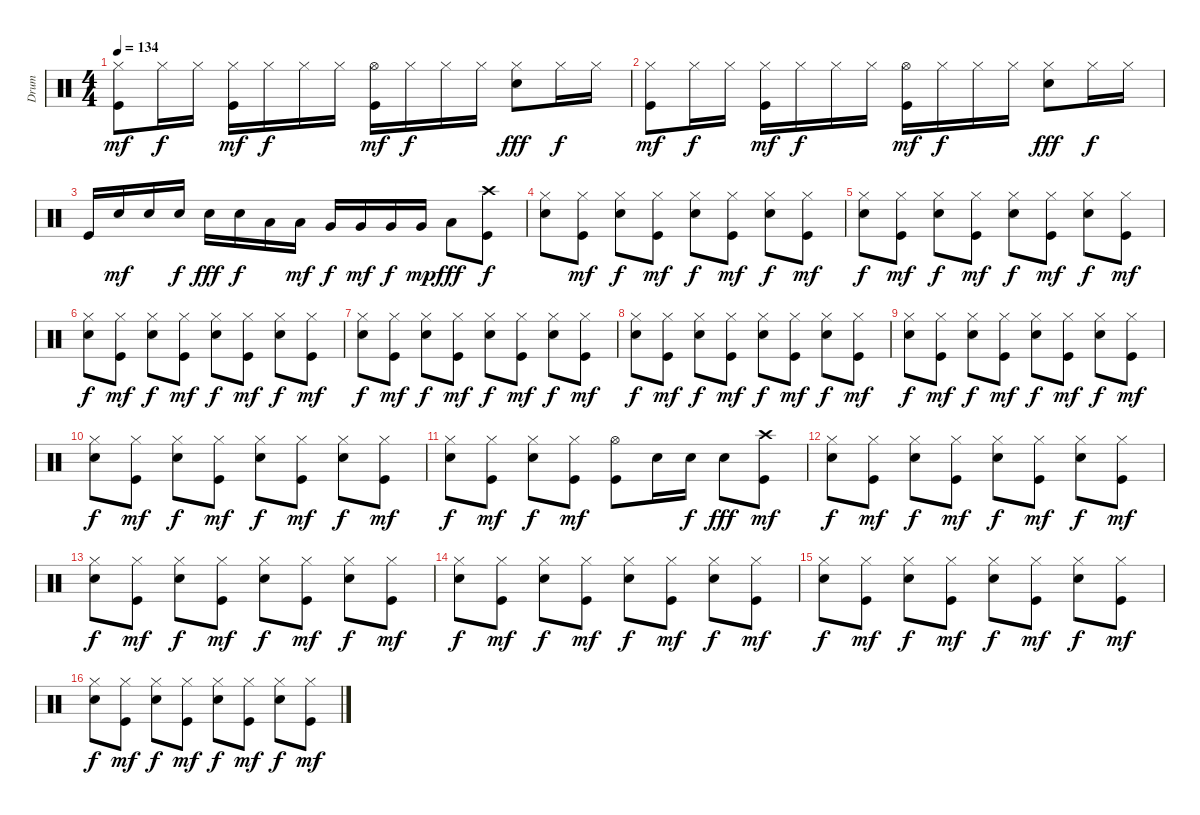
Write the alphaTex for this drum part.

\track ("Drum" "Drum") {instrument percussion}
\staff {score}
\articulation defaults
\ts (4 4)
\tempo 134
\clef neutral
\ks c
("Hi-Hat (closed)" "Kick (hit)").8{dy mf} "Hi-Hat (closed)".16{dy f} "Hi-Hat (closed)".16 ("Hi-Hat (closed)" "Kick (hit)").16{dy mf} "Hi-Hat (closed)".16{dy f} "Hi-Hat (closed)".16 "Hi-Hat (closed)".16 ("Hi-Hat (open)" "Kick (hit)").16{dy mf} "Hi-Hat (closed)".16{dy f} "Hi-Hat (closed)".16 "Hi-Hat (closed)".16 ("Hi-Hat (closed)" "Electric Snare (hit)").8{dy fff} "Hi-Hat (closed)".16{dy f} "Hi-Hat (closed)".16 |
("Hi-Hat (closed)" "Kick (hit)").8{dy mf} "Hi-Hat (closed)".16{dy f} "Hi-Hat (closed)".16 ("Hi-Hat (closed)" "Kick (hit)").16{dy mf} "Hi-Hat (closed)".16{dy f} "Hi-Hat (closed)".16 "Hi-Hat (closed)".16 ("Hi-Hat (open)" "Kick (hit)").16{dy mf} "Hi-Hat (closed)".16{dy f} "Hi-Hat (closed)".16 "Hi-Hat (closed)".16 ("Hi-Hat (closed)" "Electric Snare (hit)").8{dy fff} "Hi-Hat (closed)".16{dy f} "Hi-Hat (closed)".16 |
"Kick (hit)".16 "Electric Snare (hit)".16{dy mf} "Electric Snare (hit)".16 "Electric Snare (hit)".16{dy f} "Electric Snare (hit)".16{dy fff} "Electric Snare (hit)".16{dy f} "Low Tom (hit)".16 "Low Tom (hit)".16{dy mf} "Very Low Tom (hit)".16{dy f} "Very Low Tom (hit)".16{dy mf} "Very Low Tom (hit)".16{dy f} "Very Low Tom (hit)".16{dy mp} "Low Floor Tom (hit)".8{dy fff} ("Crash high (hit)" "Kick (hit)").8{dy f} |
("Hi-Hat (closed)" "Electric Snare (hit)").8 ("Hi-Hat (closed)" "Kick (hit)").8{dy mf} ("Hi-Hat (closed)" "Electric Snare (hit)").8{dy f} ("Hi-Hat (closed)" "Kick (hit)").8{dy mf} ("Hi-Hat (closed)" "Electric Snare (hit)").8{dy f} ("Hi-Hat (closed)" "Kick (hit)").8{dy mf} ("Hi-Hat (closed)" "Electric Snare (hit)").8{dy f} ("Hi-Hat (closed)" "Kick (hit)").8{dy mf} |
("Hi-Hat (closed)" "Electric Snare (hit)").8{dy f} ("Hi-Hat (closed)" "Kick (hit)").8{dy mf} ("Hi-Hat (closed)" "Electric Snare (hit)").8{dy f} ("Hi-Hat (closed)" "Kick (hit)").8{dy mf} ("Hi-Hat (closed)" "Electric Snare (hit)").8{dy f} ("Hi-Hat (closed)" "Kick (hit)").8{dy mf} ("Hi-Hat (closed)" "Electric Snare (hit)").8{dy f} ("Hi-Hat (closed)" "Kick (hit)").8{dy mf} |
("Hi-Hat (closed)" "Electric Snare (hit)").8{dy f} ("Hi-Hat (closed)" "Kick (hit)").8{dy mf} ("Hi-Hat (closed)" "Electric Snare (hit)").8{dy f} ("Hi-Hat (closed)" "Kick (hit)").8{dy mf} ("Hi-Hat (closed)" "Electric Snare (hit)").8{dy f} ("Hi-Hat (closed)" "Kick (hit)").8{dy mf} ("Hi-Hat (closed)" "Electric Snare (hit)").8{dy f} ("Hi-Hat (closed)" "Kick (hit)").8{dy mf} |
("Hi-Hat (closed)" "Electric Snare (hit)").8{dy f} ("Hi-Hat (closed)" "Kick (hit)").8{dy mf} ("Hi-Hat (closed)" "Electric Snare (hit)").8{dy f} ("Hi-Hat (closed)" "Kick (hit)").8{dy mf} ("Hi-Hat (closed)" "Electric Snare (hit)").8{dy f} ("Hi-Hat (closed)" "Kick (hit)").8{dy mf} ("Hi-Hat (closed)" "Electric Snare (hit)").8{dy f} ("Hi-Hat (closed)" "Kick (hit)").8{dy mf} |
("Hi-Hat (closed)" "Electric Snare (hit)").8{dy f} ("Hi-Hat (closed)" "Kick (hit)").8{dy mf} ("Hi-Hat (closed)" "Electric Snare (hit)").8{dy f} ("Hi-Hat (closed)" "Kick (hit)").8{dy mf} ("Hi-Hat (closed)" "Electric Snare (hit)").8{dy f} ("Hi-Hat (closed)" "Kick (hit)").8{dy mf} ("Hi-Hat (closed)" "Electric Snare (hit)").8{dy f} ("Hi-Hat (closed)" "Kick (hit)").8{dy mf} |
("Hi-Hat (closed)" "Electric Snare (hit)").8{dy f} ("Hi-Hat (closed)" "Kick (hit)").8{dy mf} ("Hi-Hat (closed)" "Electric Snare (hit)").8{dy f} ("Hi-Hat (closed)" "Kick (hit)").8{dy mf} ("Hi-Hat (closed)" "Electric Snare (hit)").8{dy f} ("Hi-Hat (closed)" "Kick (hit)").8{dy mf} ("Hi-Hat (closed)" "Electric Snare (hit)").8{dy f} ("Hi-Hat (closed)" "Kick (hit)").8{dy mf} |
("Hi-Hat (closed)" "Electric Snare (hit)").8{dy f} ("Hi-Hat (closed)" "Kick (hit)").8{dy mf} ("Hi-Hat (closed)" "Electric Snare (hit)").8{dy f} ("Hi-Hat (closed)" "Kick (hit)").8{dy mf} ("Hi-Hat (closed)" "Electric Snare (hit)").8{dy f} ("Hi-Hat (closed)" "Kick (hit)").8{dy mf} ("Hi-Hat (closed)" "Electric Snare (hit)").8{dy f} ("Hi-Hat (closed)" "Kick (hit)").8{dy mf} |
("Hi-Hat (closed)" "Electric Snare (hit)").8{dy f} ("Hi-Hat (closed)" "Kick (hit)").8{dy mf} ("Hi-Hat (closed)" "Electric Snare (hit)").8{dy f} ("Hi-Hat (closed)" "Kick (hit)").8{dy mf} ("Hi-Hat (open)" "Kick (hit)").8 "Electric Snare (hit)".16 "Electric Snare (hit)".16{dy f} "Electric Snare (hit)".8{dy fff} ("Crash high (hit)" "Kick (hit)").8{dy mf} |
("Hi-Hat (closed)" "Electric Snare (hit)").8{dy f} ("Hi-Hat (closed)" "Kick (hit)").8{dy mf} ("Hi-Hat (closed)" "Electric Snare (hit)").8{dy f} ("Hi-Hat (closed)" "Kick (hit)").8{dy mf} ("Hi-Hat (closed)" "Electric Snare (hit)").8{dy f} ("Hi-Hat (closed)" "Kick (hit)").8{dy mf} ("Hi-Hat (closed)" "Electric Snare (hit)").8{dy f} ("Hi-Hat (closed)" "Kick (hit)").8{dy mf} |
("Hi-Hat (closed)" "Electric Snare (hit)").8{dy f} ("Hi-Hat (closed)" "Kick (hit)").8{dy mf} ("Hi-Hat (closed)" "Electric Snare (hit)").8{dy f} ("Hi-Hat (closed)" "Kick (hit)").8{dy mf} ("Hi-Hat (closed)" "Electric Snare (hit)").8{dy f} ("Hi-Hat (closed)" "Kick (hit)").8{dy mf} ("Hi-Hat (closed)" "Electric Snare (hit)").8{dy f} ("Hi-Hat (closed)" "Kick (hit)").8{dy mf} |
("Hi-Hat (closed)" "Electric Snare (hit)").8{dy f} ("Hi-Hat (closed)" "Kick (hit)").8{dy mf} ("Hi-Hat (closed)" "Electric Snare (hit)").8{dy f} ("Hi-Hat (closed)" "Kick (hit)").8{dy mf} ("Hi-Hat (closed)" "Electric Snare (hit)").8{dy f} ("Hi-Hat (closed)" "Kick (hit)").8{dy mf} ("Hi-Hat (closed)" "Electric Snare (hit)").8{dy f} ("Hi-Hat (closed)" "Kick (hit)").8{dy mf} |
("Hi-Hat (closed)" "Electric Snare (hit)").8{dy f} ("Hi-Hat (closed)" "Kick (hit)").8{dy mf} ("Hi-Hat (closed)" "Electric Snare (hit)").8{dy f} ("Hi-Hat (closed)" "Kick (hit)").8{dy mf} ("Hi-Hat (closed)" "Electric Snare (hit)").8{dy f} ("Hi-Hat (closed)" "Kick (hit)").8{dy mf} ("Hi-Hat (closed)" "Electric Snare (hit)").8{dy f} ("Hi-Hat (closed)" "Kick (hit)").8{dy mf} |
("Hi-Hat (closed)" "Electric Snare (hit)").8{dy f} ("Hi-Hat (closed)" "Kick (hit)").8{dy mf} ("Hi-Hat (closed)" "Electric Snare (hit)").8{dy f} ("Hi-Hat (closed)" "Kick (hit)").8{dy mf} ("Hi-Hat (closed)" "Electric Snare (hit)").8{dy f} ("Hi-Hat (closed)" "Kick (hit)").8{dy mf} ("Hi-Hat (closed)" "Electric Snare (hit)").8{dy f} ("Hi-Hat (closed)" "Kick (hit)").8{dy mf}
